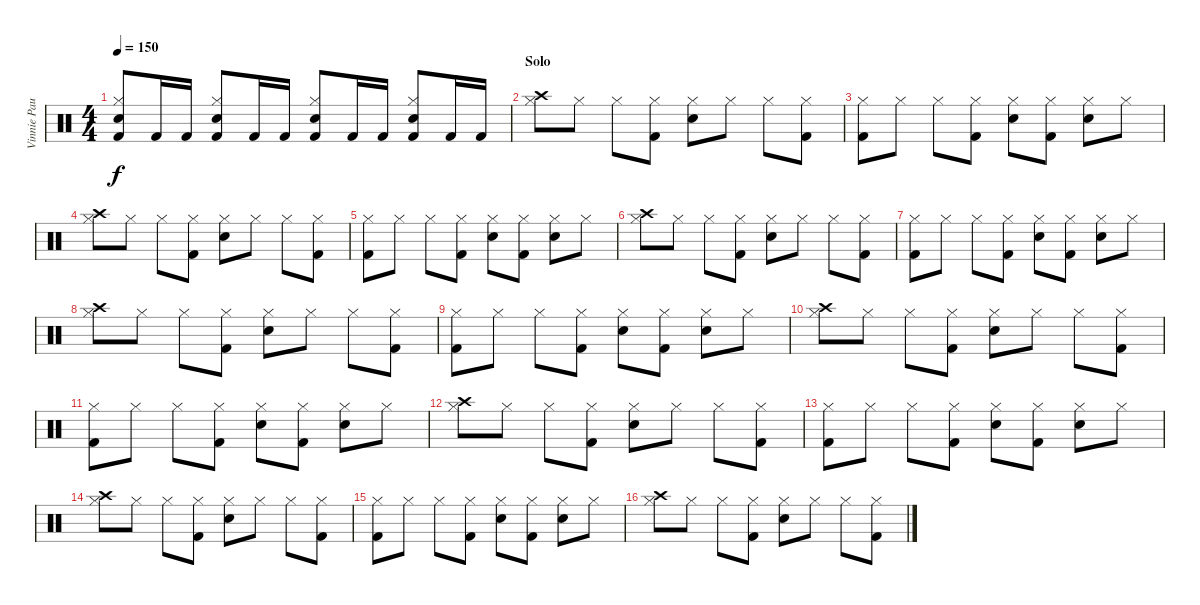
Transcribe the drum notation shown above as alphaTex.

\track ("Vinnie Paul" "Vinnie Pau") {instrument percussion}
\staff {score}
\articulation defaults
\ts (4 4)
\tempo 150
\clef neutral
\ks c
("Snare (hit) 2" "Hi-Hat (closed)" "Kick (hit) 2").8{dy f} "Kick (hit) 2".16 "Kick (hit) 2".16 ("Snare (hit) 2" "Hi-Hat (closed)" "Kick (hit) 2").8 "Kick (hit) 2".16 "Kick (hit) 2".16 ("Snare (hit) 2" "Hi-Hat (closed)" "Kick (hit) 2").8 "Kick (hit) 2".16 "Kick (hit) 2".16 ("Snare (hit) 2" "Hi-Hat (closed)" "Kick (hit) 2").8 "Kick (hit) 2".16 "Kick (hit) 2".16 |
\section ("" "Solo")
("Crash high (hit)" "Hi-Hat (closed)").8 "Hi-Hat (closed)".8 "Hi-Hat (closed)".8 ("Hi-Hat (closed)" "Kick (hit) 2").8 ("Snare (hit) 2" "Hi-Hat (closed)").8 "Hi-Hat (closed)".8 "Hi-Hat (closed)".8 ("Hi-Hat (closed)" "Kick (hit) 2").8 |
("Hi-Hat (closed)" "Kick (hit) 2").8 "Hi-Hat (closed)".8 "Hi-Hat (closed)".8 ("Hi-Hat (closed)" "Kick (hit) 2").8 ("Snare (hit) 2" "Hi-Hat (closed)").8 ("Hi-Hat (closed)" "Kick (hit) 2").8 ("Snare (hit) 2" "Hi-Hat (closed)").8 "Hi-Hat (closed)".8 |
("Crash high (hit)" "Hi-Hat (closed)").8 "Hi-Hat (closed)".8 "Hi-Hat (closed)".8 ("Hi-Hat (closed)" "Kick (hit) 2").8 ("Snare (hit) 2" "Hi-Hat (closed)").8 "Hi-Hat (closed)".8 "Hi-Hat (closed)".8 ("Hi-Hat (closed)" "Kick (hit) 2").8 |
("Hi-Hat (closed)" "Kick (hit) 2").8 "Hi-Hat (closed)".8 "Hi-Hat (closed)".8 ("Hi-Hat (closed)" "Kick (hit) 2").8 ("Snare (hit) 2" "Hi-Hat (closed)").8 ("Hi-Hat (closed)" "Kick (hit) 2").8 ("Snare (hit) 2" "Hi-Hat (closed)").8 "Hi-Hat (closed)".8 |
("Crash high (hit)" "Hi-Hat (closed)").8 "Hi-Hat (closed)".8 "Hi-Hat (closed)".8 ("Hi-Hat (closed)" "Kick (hit) 2").8 ("Snare (hit) 2" "Hi-Hat (closed)").8 "Hi-Hat (closed)".8 "Hi-Hat (closed)".8 ("Hi-Hat (closed)" "Kick (hit) 2").8 |
("Hi-Hat (closed)" "Kick (hit) 2").8 "Hi-Hat (closed)".8 "Hi-Hat (closed)".8 ("Hi-Hat (closed)" "Kick (hit) 2").8 ("Snare (hit) 2" "Hi-Hat (closed)").8 ("Hi-Hat (closed)" "Kick (hit) 2").8 ("Snare (hit) 2" "Hi-Hat (closed)").8 "Hi-Hat (closed)".8 |
("Crash high (hit)" "Hi-Hat (closed)").8 "Hi-Hat (closed)".8 "Hi-Hat (closed)".8 ("Hi-Hat (closed)" "Kick (hit) 2").8 ("Snare (hit) 2" "Hi-Hat (closed)").8 "Hi-Hat (closed)".8 "Hi-Hat (closed)".8 ("Hi-Hat (closed)" "Kick (hit) 2").8 |
("Hi-Hat (closed)" "Kick (hit) 2").8 "Hi-Hat (closed)".8 "Hi-Hat (closed)".8 ("Hi-Hat (closed)" "Kick (hit) 2").8 ("Snare (hit) 2" "Hi-Hat (closed)").8 ("Hi-Hat (closed)" "Kick (hit) 2").8 ("Snare (hit) 2" "Hi-Hat (closed)").8 "Hi-Hat (closed)".8 |
("Crash high (hit)" "Hi-Hat (closed)").8 "Hi-Hat (closed)".8 "Hi-Hat (closed)".8 ("Hi-Hat (closed)" "Kick (hit) 2").8 ("Snare (hit) 2" "Hi-Hat (closed)").8 "Hi-Hat (closed)".8 "Hi-Hat (closed)".8 ("Hi-Hat (closed)" "Kick (hit) 2").8 |
("Hi-Hat (closed)" "Kick (hit) 2").8 "Hi-Hat (closed)".8 "Hi-Hat (closed)".8 ("Hi-Hat (closed)" "Kick (hit) 2").8 ("Snare (hit) 2" "Hi-Hat (closed)").8 ("Hi-Hat (closed)" "Kick (hit) 2").8 ("Snare (hit) 2" "Hi-Hat (closed)").8 "Hi-Hat (closed)".8 |
("Crash high (hit)" "Hi-Hat (closed)").8 "Hi-Hat (closed)".8 "Hi-Hat (closed)".8 ("Hi-Hat (closed)" "Kick (hit) 2").8 ("Snare (hit) 2" "Hi-Hat (closed)").8 "Hi-Hat (closed)".8 "Hi-Hat (closed)".8 ("Hi-Hat (closed)" "Kick (hit) 2").8 |
("Hi-Hat (closed)" "Kick (hit) 2").8 "Hi-Hat (closed)".8 "Hi-Hat (closed)".8 ("Hi-Hat (closed)" "Kick (hit) 2").8 ("Snare (hit) 2" "Hi-Hat (closed)").8 ("Hi-Hat (closed)" "Kick (hit) 2").8 ("Snare (hit) 2" "Hi-Hat (closed)").8 "Hi-Hat (closed)".8 |
("Crash high (hit)" "Hi-Hat (closed)").8 "Hi-Hat (closed)".8 "Hi-Hat (closed)".8 ("Hi-Hat (closed)" "Kick (hit) 2").8 ("Snare (hit) 2" "Hi-Hat (closed)").8 "Hi-Hat (closed)".8 "Hi-Hat (closed)".8 ("Hi-Hat (closed)" "Kick (hit) 2").8 |
("Hi-Hat (closed)" "Kick (hit) 2").8 "Hi-Hat (closed)".8 "Hi-Hat (closed)".8 ("Hi-Hat (closed)" "Kick (hit) 2").8 ("Snare (hit) 2" "Hi-Hat (closed)").8 ("Hi-Hat (closed)" "Kick (hit) 2").8 ("Snare (hit) 2" "Hi-Hat (closed)").8 "Hi-Hat (closed)".8 |
("Crash high (hit)" "Hi-Hat (closed)").8 "Hi-Hat (closed)".8 "Hi-Hat (closed)".8 ("Hi-Hat (closed)" "Kick (hit) 2").8 ("Snare (hit) 2" "Hi-Hat (closed)").8 "Hi-Hat (closed)".8 "Hi-Hat (closed)".8 ("Hi-Hat (closed)" "Kick (hit) 2").8
